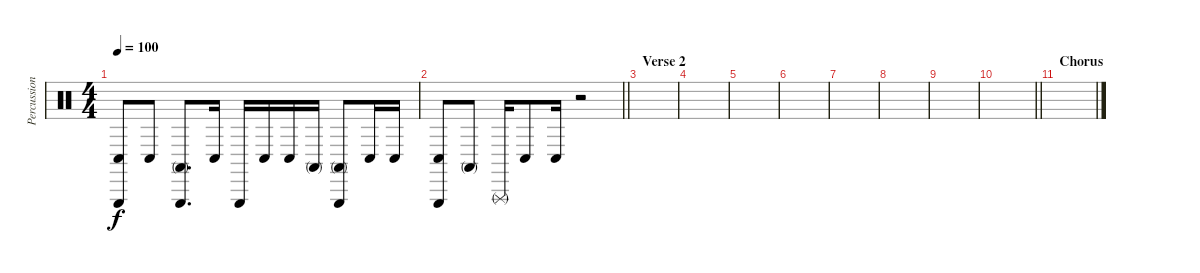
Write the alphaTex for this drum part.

\track ("Percussion" "Percussion") {instrument percussion}
\staff {score}
\articulation defaults
\ts (4 4)
\tempo 100
\clef neutral
\ks c
("Triangle (hit)" "Conga low (hit)").8{dy f} "Conga low (hit)".8 ("Triangle (hit)" "Conga high (mute)").8{d} "Conga low (hit)".16 "Triangle (hit)".16 "Conga low (hit)".16 "Conga low (hit)".16 "Conga high (mute)".16 ("Triangle (hit)" "Conga high (mute)").8 "Conga low (hit)".16 "Conga low (hit)".16 |
\barLineRight lightlight
("Triangle (hit)" "Conga low (hit)").8 "Conga high (mute)".8 "Triangle (rnute)".16 "Conga low (hit)".8 "Conga low (hit)".16 r.2 |
\section ("" "Verse 2")
|
|
|
|
|
|
|
\barLineRight lightlight
|
\section ("" "Chorus")
